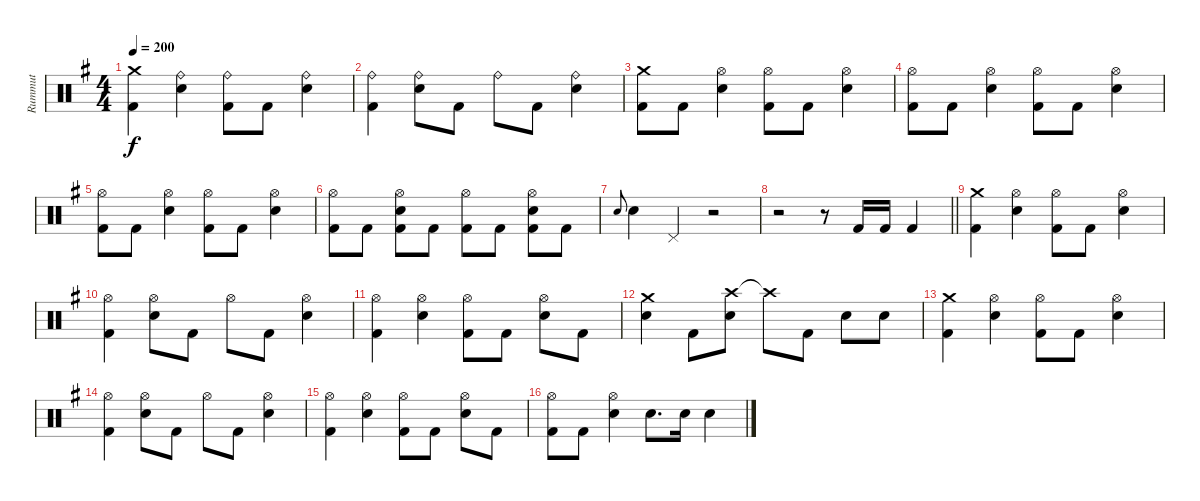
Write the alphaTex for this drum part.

\track ("Rummut" "Rummut") {instrument percussion}
\staff {score}
\articulation defaults
\ts (4 4)
\tempo 200
\clef neutral
\ks g
("Crash medium (hit)" "Kick (hit) 2").4{dy f} ("Ride (bell)" "Snare (hit) 2").4 ("Ride (bell)" "Kick (hit) 2").8 "Kick (hit) 2".8 ("Ride (bell)" "Snare (hit) 2").4 |
("Ride (bell)" "Kick (hit) 2").4 ("Ride (bell)" "Snare (hit) 2").8 "Kick (hit) 2".8 "Ride (bell)".8 "Kick (hit) 2".8 ("Ride (bell)" "Snare (hit) 2").4 |
("Crash medium (hit)" "Kick (hit) 2").8 "Kick (hit) 2".8 ("Hi-Hat (open)" "Snare (hit) 2").4 ("Hi-Hat (open)" "Kick (hit) 2").8 "Kick (hit) 2".8 ("Hi-Hat (open)" "Snare (hit) 2").4 |
("Hi-Hat (open)" "Kick (hit) 2").8 "Kick (hit) 2".8 ("Hi-Hat (open)" "Snare (hit) 2").4 ("Hi-Hat (open)" "Kick (hit) 2").8 "Kick (hit) 2".8 ("Hi-Hat (open)" "Snare (hit) 2").4 |
("Hi-Hat (open)" "Kick (hit) 2").8 "Kick (hit) 2".8 ("Hi-Hat (open)" "Snare (hit) 2").4 ("Hi-Hat (open)" "Kick (hit) 2").8 "Kick (hit) 2".8 ("Hi-Hat (open)" "Snare (hit) 2").4 |
("Hi-Hat (open)" "Kick (hit) 2").8 "Kick (hit) 2".8 ("Hi-Hat (open)" "Snare (hit) 2" "Kick (hit) 2").8 "Kick (hit) 2".8 ("Hi-Hat (open)" "Kick (hit) 2").8 "Kick (hit) 2".8 ("Hi-Hat (open)" "Snare (hit) 2" "Kick (hit) 2").8 "Kick (hit) 2".8 |
"Snare (hit) 2".8{gr onbeat} "Snare (hit) 2".4 "Pedal Hi-Hat (hit)".4 r.2 |
\barLineRight lightlight
r.2 r.8 "Kick (hit) 2".16 "Kick (hit) 2".16 "Kick (hit) 2".4 |
("Crash medium (hit)" "Kick (hit) 2").4 ("Hi-Hat (open)" "Snare (hit) 2").4 ("Hi-Hat (open)" "Kick (hit) 2").8 "Kick (hit) 2".8 ("Hi-Hat (open)" "Snare (hit) 2").4 |
("Hi-Hat (open)" "Kick (hit) 2").4 ("Hi-Hat (open)" "Snare (hit) 2").8 "Kick (hit) 2".8 "Hi-Hat (open)".8 "Kick (hit) 2".8 ("Hi-Hat (open)" "Snare (hit) 2").4 |
("Hi-Hat (open)" "Kick (hit) 2").4 ("Hi-Hat (open)" "Snare (hit) 2").4 ("Hi-Hat (open)" "Kick (hit) 2").8 "Kick (hit) 2".8 ("Hi-Hat (open)" "Snare (hit) 2").8 "Kick (hit) 2".8 |
("Crash medium (hit)" "Snare (hit) 2").4 "Kick (hit) 2".8 ("Crash high (hit)" "Snare (hit) 2").8 "Crash high (hit)"{t}.8 "Kick (hit) 2".8 "Snare (hit) 2".8 "Snare (hit) 2".8 |
("Crash medium (hit)" "Kick (hit) 2").4 ("Hi-Hat (open)" "Snare (hit) 2").4 ("Hi-Hat (open)" "Kick (hit) 2").8 "Kick (hit) 2".8 ("Hi-Hat (open)" "Snare (hit) 2").4 |
("Hi-Hat (open)" "Kick (hit) 2").4 ("Hi-Hat (open)" "Snare (hit) 2").8 "Kick (hit) 2".8 "Hi-Hat (open)".8 "Kick (hit) 2".8 ("Hi-Hat (open)" "Snare (hit) 2").4 |
("Hi-Hat (open)" "Kick (hit) 2").4 ("Hi-Hat (open)" "Snare (hit) 2").4 ("Hi-Hat (open)" "Kick (hit) 2").8 "Kick (hit) 2".8 ("Hi-Hat (open)" "Snare (hit) 2").8 "Kick (hit) 2".8 |
("Hi-Hat (open)" "Kick (hit) 2").8 "Kick (hit) 2".8 ("Hi-Hat (open)" "Snare (hit) 2").4 "Snare (hit) 2".8{d} "Snare (hit) 2".16 "Snare (hit) 2".4
